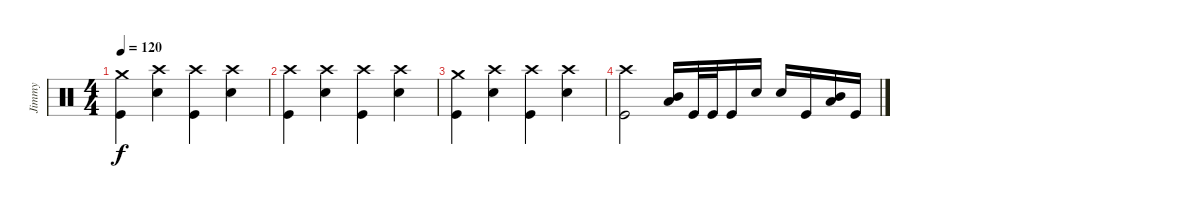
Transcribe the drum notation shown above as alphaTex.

\track ("Jimmy" "Jimmy") {instrument percussion}
\staff {score}
\articulation defaults
\ts (4 4)
\tempo 120
\clef neutral
\ks c
("Crash medium (hit)" "Kick (hit)").4{dy f} ("Crash high (hit)" "Snare (hit) 2").4 ("Kick (hit)" "Crash high (hit)").4 ("Snare (hit) 2" "Crash high (hit)").4 |
("Crash high (hit)" "Kick (hit)").4 ("Crash high (hit)" "Snare (hit) 2").4 ("Kick (hit)" "Crash high (hit)").4 ("Snare (hit) 2" "Crash high (hit)").4 |
("Crash medium (hit)" "Kick (hit)").4 ("Crash high (hit)" "Snare (hit) 2").4 ("Kick (hit)" "Crash high (hit)").4 ("Snare (hit) 2" "Crash high (hit)").4 |
("Kick (hit)" "Crash high (hit)").2 ("Mid Tom (hit)" "Low Tom (hit)").16 "Kick (hit)".32 "Kick (hit)".32 "Kick (hit)".16 "Snare (hit) 2".16 "Snare (hit) 2".16 "Kick (hit)".16 ("Mid Tom (hit)" "Low Tom (hit)").16 "Kick (hit)".16
